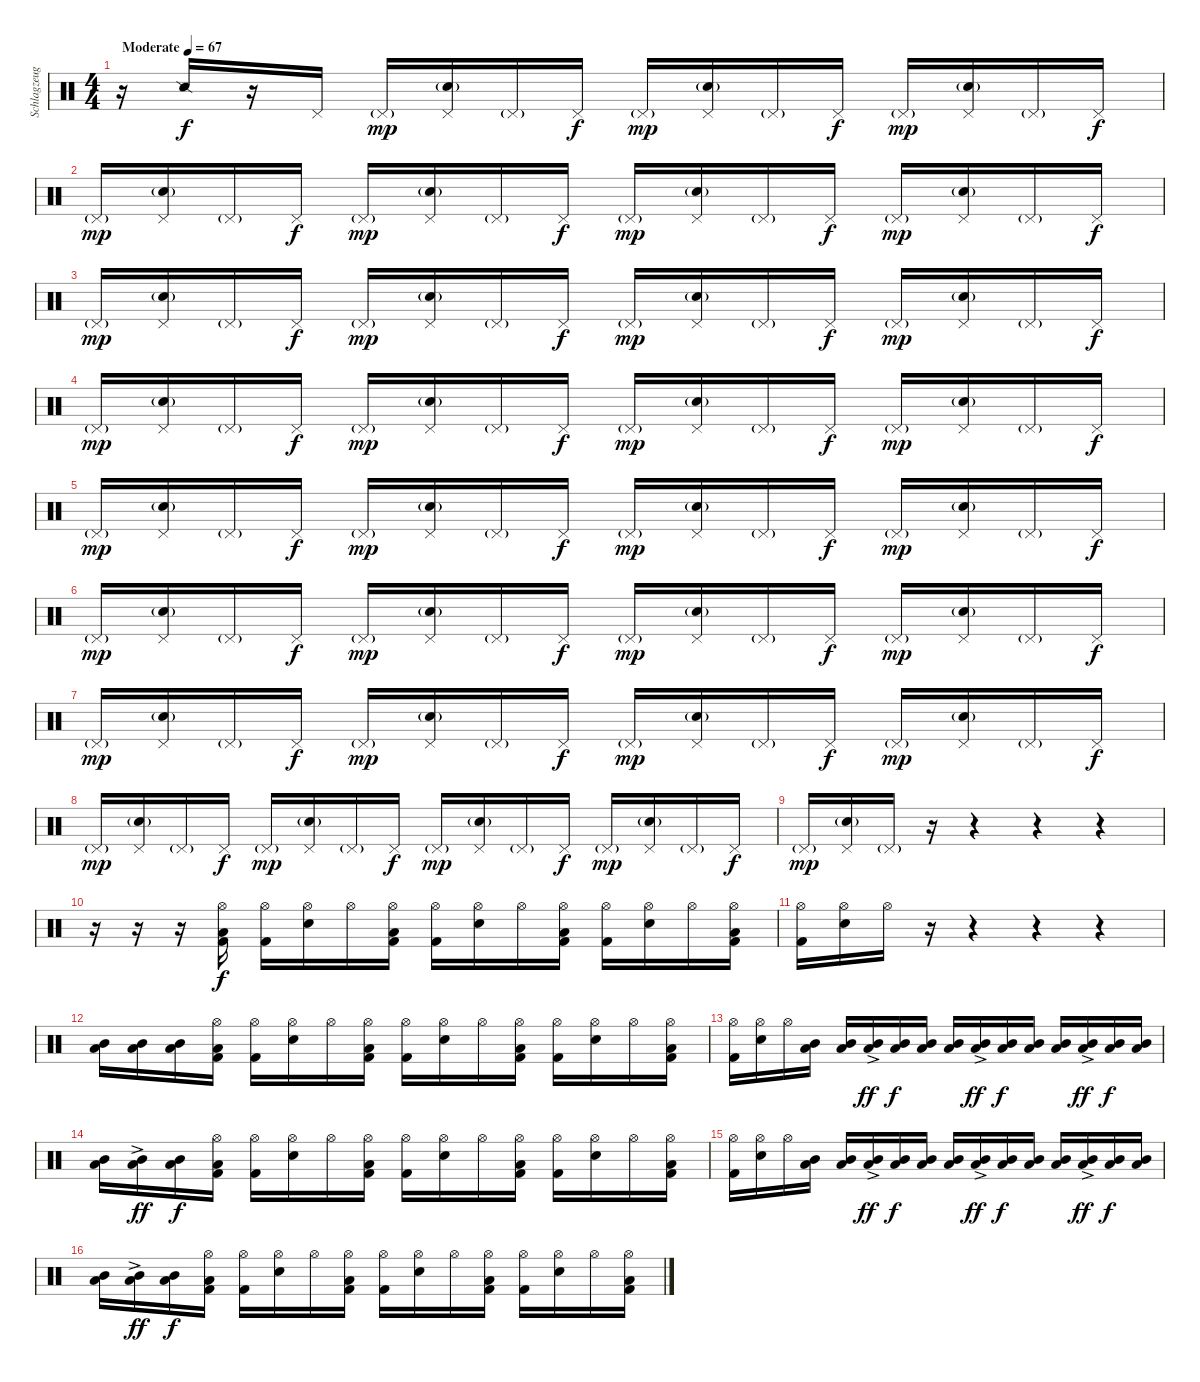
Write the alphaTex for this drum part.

\track ("Schlagzeug" "Schlagzeug") {instrument percussion}
\staff {score}
\articulation defaults
\ts (4 4)
\tempo (67 "Moderate")
\clef neutral
\ks c
r.16{dy f} "Snare (side stick) 2".16 r.16 "Pedal Hi-Hat (hit)".16 "Pedal Hi-Hat (hit)"{g}.16{dy mp} ("Pedal Hi-Hat (hit)" "Snare (hit) 2"{g}).16 "Pedal Hi-Hat (hit)"{g}.16 "Pedal Hi-Hat (hit)".16{dy f} "Pedal Hi-Hat (hit)"{g}.16{dy mp} ("Pedal Hi-Hat (hit)" "Snare (hit) 2"{g}).16 "Pedal Hi-Hat (hit)"{g}.16 "Pedal Hi-Hat (hit)".16{dy f} "Pedal Hi-Hat (hit)"{g}.16{dy mp} ("Pedal Hi-Hat (hit)" "Snare (hit) 2"{g}).16 "Pedal Hi-Hat (hit)"{g}.16 "Pedal Hi-Hat (hit)".16{dy f} |
"Pedal Hi-Hat (hit)"{g}.16{dy mp} ("Pedal Hi-Hat (hit)" "Snare (hit) 2"{g}).16 "Pedal Hi-Hat (hit)"{g}.16 "Pedal Hi-Hat (hit)".16{dy f} "Pedal Hi-Hat (hit)"{g}.16{dy mp} ("Pedal Hi-Hat (hit)" "Snare (hit) 2"{g}).16 "Pedal Hi-Hat (hit)"{g}.16 "Pedal Hi-Hat (hit)".16{dy f} "Pedal Hi-Hat (hit)"{g}.16{dy mp} ("Pedal Hi-Hat (hit)" "Snare (hit) 2"{g}).16 "Pedal Hi-Hat (hit)"{g}.16 "Pedal Hi-Hat (hit)".16{dy f} "Pedal Hi-Hat (hit)"{g}.16{dy mp} ("Pedal Hi-Hat (hit)" "Snare (hit) 2"{g}).16 "Pedal Hi-Hat (hit)"{g}.16 "Pedal Hi-Hat (hit)".16{dy f} |
"Pedal Hi-Hat (hit)"{g}.16{dy mp} ("Pedal Hi-Hat (hit)" "Snare (hit) 2"{g}).16 "Pedal Hi-Hat (hit)"{g}.16 "Pedal Hi-Hat (hit)".16{dy f} "Pedal Hi-Hat (hit)"{g}.16{dy mp} ("Pedal Hi-Hat (hit)" "Snare (hit) 2"{g}).16 "Pedal Hi-Hat (hit)"{g}.16 "Pedal Hi-Hat (hit)".16{dy f} "Pedal Hi-Hat (hit)"{g}.16{dy mp} ("Pedal Hi-Hat (hit)" "Snare (hit) 2"{g}).16 "Pedal Hi-Hat (hit)"{g}.16 "Pedal Hi-Hat (hit)".16{dy f} "Pedal Hi-Hat (hit)"{g}.16{dy mp} ("Pedal Hi-Hat (hit)" "Snare (hit) 2"{g}).16 "Pedal Hi-Hat (hit)"{g}.16 "Pedal Hi-Hat (hit)".16{dy f} |
"Pedal Hi-Hat (hit)"{g}.16{dy mp} ("Pedal Hi-Hat (hit)" "Snare (hit) 2"{g}).16 "Pedal Hi-Hat (hit)"{g}.16 "Pedal Hi-Hat (hit)".16{dy f} "Pedal Hi-Hat (hit)"{g}.16{dy mp} ("Pedal Hi-Hat (hit)" "Snare (hit) 2"{g}).16 "Pedal Hi-Hat (hit)"{g}.16 "Pedal Hi-Hat (hit)".16{dy f} "Pedal Hi-Hat (hit)"{g}.16{dy mp} ("Pedal Hi-Hat (hit)" "Snare (hit) 2"{g}).16 "Pedal Hi-Hat (hit)"{g}.16 "Pedal Hi-Hat (hit)".16{dy f} "Pedal Hi-Hat (hit)"{g}.16{dy mp} ("Pedal Hi-Hat (hit)" "Snare (hit) 2"{g}).16 "Pedal Hi-Hat (hit)"{g}.16 "Pedal Hi-Hat (hit)".16{dy f} |
"Pedal Hi-Hat (hit)"{g}.16{dy mp} ("Pedal Hi-Hat (hit)" "Snare (hit) 2"{g}).16 "Pedal Hi-Hat (hit)"{g}.16 "Pedal Hi-Hat (hit)".16{dy f} "Pedal Hi-Hat (hit)"{g}.16{dy mp} ("Pedal Hi-Hat (hit)" "Snare (hit) 2"{g}).16 "Pedal Hi-Hat (hit)"{g}.16 "Pedal Hi-Hat (hit)".16{dy f} "Pedal Hi-Hat (hit)"{g}.16{dy mp} ("Pedal Hi-Hat (hit)" "Snare (hit) 2"{g}).16 "Pedal Hi-Hat (hit)"{g}.16 "Pedal Hi-Hat (hit)".16{dy f} "Pedal Hi-Hat (hit)"{g}.16{dy mp} ("Pedal Hi-Hat (hit)" "Snare (hit) 2"{g}).16 "Pedal Hi-Hat (hit)"{g}.16 "Pedal Hi-Hat (hit)".16{dy f} |
"Pedal Hi-Hat (hit)"{g}.16{dy mp} ("Pedal Hi-Hat (hit)" "Snare (hit) 2"{g}).16 "Pedal Hi-Hat (hit)"{g}.16 "Pedal Hi-Hat (hit)".16{dy f} "Pedal Hi-Hat (hit)"{g}.16{dy mp} ("Pedal Hi-Hat (hit)" "Snare (hit) 2"{g}).16 "Pedal Hi-Hat (hit)"{g}.16 "Pedal Hi-Hat (hit)".16{dy f} "Pedal Hi-Hat (hit)"{g}.16{dy mp} ("Pedal Hi-Hat (hit)" "Snare (hit) 2"{g}).16 "Pedal Hi-Hat (hit)"{g}.16 "Pedal Hi-Hat (hit)".16{dy f} "Pedal Hi-Hat (hit)"{g}.16{dy mp} ("Pedal Hi-Hat (hit)" "Snare (hit) 2"{g}).16 "Pedal Hi-Hat (hit)"{g}.16 "Pedal Hi-Hat (hit)".16{dy f} |
"Pedal Hi-Hat (hit)"{g}.16{dy mp} ("Pedal Hi-Hat (hit)" "Snare (hit) 2"{g}).16 "Pedal Hi-Hat (hit)"{g}.16 "Pedal Hi-Hat (hit)".16{dy f} "Pedal Hi-Hat (hit)"{g}.16{dy mp} ("Pedal Hi-Hat (hit)" "Snare (hit) 2"{g}).16 "Pedal Hi-Hat (hit)"{g}.16 "Pedal Hi-Hat (hit)".16{dy f} "Pedal Hi-Hat (hit)"{g}.16{dy mp} ("Pedal Hi-Hat (hit)" "Snare (hit) 2"{g}).16 "Pedal Hi-Hat (hit)"{g}.16 "Pedal Hi-Hat (hit)".16{dy f} "Pedal Hi-Hat (hit)"{g}.16{dy mp} ("Pedal Hi-Hat (hit)" "Snare (hit) 2"{g}).16 "Pedal Hi-Hat (hit)"{g}.16 "Pedal Hi-Hat (hit)".16{dy f} |
"Pedal Hi-Hat (hit)"{g}.16{dy mp} ("Pedal Hi-Hat (hit)" "Snare (hit) 2"{g}).16 "Pedal Hi-Hat (hit)"{g}.16 "Pedal Hi-Hat (hit)".16{dy f} "Pedal Hi-Hat (hit)"{g}.16{dy mp} ("Pedal Hi-Hat (hit)" "Snare (hit) 2"{g}).16 "Pedal Hi-Hat (hit)"{g}.16 "Pedal Hi-Hat (hit)".16{dy f} "Pedal Hi-Hat (hit)"{g}.16{dy mp} ("Pedal Hi-Hat (hit)" "Snare (hit) 2"{g}).16 "Pedal Hi-Hat (hit)"{g}.16 "Pedal Hi-Hat (hit)".16{dy f} "Pedal Hi-Hat (hit)"{g}.16{dy mp} ("Pedal Hi-Hat (hit)" "Snare (hit) 2"{g}).16 "Pedal Hi-Hat (hit)"{g}.16 "Pedal Hi-Hat (hit)".16{dy f} |
"Pedal Hi-Hat (hit)"{g}.16{dy mp} ("Pedal Hi-Hat (hit)" "Snare (hit) 2"{g}).16 "Pedal Hi-Hat (hit)"{g}.16 r.16 r.4 r.4 r.4 |
r.16 r.16 r.16 ("Hi-Hat (open)" "Low Tom (hit)" "Kick (hit) 2").16{dy f} ("Hi-Hat (open)" "Kick (hit) 2").16 ("Hi-Hat (open)" "Snare (hit) 2").16 "Hi-Hat (open)".16 ("Hi-Hat (open)" "Low Tom (hit)" "Kick (hit) 2").16 ("Hi-Hat (open)" "Kick (hit) 2").16 ("Hi-Hat (open)" "Snare (hit) 2").16 "Hi-Hat (open)".16 ("Hi-Hat (open)" "Low Tom (hit)" "Kick (hit) 2").16 ("Hi-Hat (open)" "Kick (hit) 2").16 ("Hi-Hat (open)" "Snare (hit) 2").16 "Hi-Hat (open)".16 ("Hi-Hat (open)" "Low Tom (hit)" "Kick (hit) 2").16 |
("Hi-Hat (open)" "Kick (hit) 2").16 ("Hi-Hat (open)" "Snare (hit) 2").16 "Hi-Hat (open)".16 r.16 r.4 r.4 r.4 |
("Mid Tom (hit)" "Low Tom (hit)").16 ("Mid Tom (hit)" "Low Tom (hit)").16 ("Mid Tom (hit)" "Low Tom (hit)").16 ("Hi-Hat (open)" "Low Tom (hit)" "Kick (hit) 2").16 ("Hi-Hat (open)" "Kick (hit) 2").16 ("Hi-Hat (open)" "Snare (hit) 2").16 "Hi-Hat (open)".16 ("Hi-Hat (open)" "Low Tom (hit)" "Kick (hit) 2").16 ("Hi-Hat (open)" "Kick (hit) 2").16 ("Hi-Hat (open)" "Snare (hit) 2").16 "Hi-Hat (open)".16 ("Hi-Hat (open)" "Low Tom (hit)" "Kick (hit) 2").16 ("Hi-Hat (open)" "Kick (hit) 2").16 ("Hi-Hat (open)" "Snare (hit) 2").16 "Hi-Hat (open)".16 ("Hi-Hat (open)" "Low Tom (hit)" "Kick (hit) 2").16 |
("Hi-Hat (open)" "Kick (hit) 2").16 ("Hi-Hat (open)" "Snare (hit) 2").16 "Hi-Hat (open)".16 ("Mid Tom (hit)" "Low Tom (hit)").16 ("Mid Tom (hit)" "Low Tom (hit)").16 ("Mid Tom (hit)"{ac} "Low Tom (hit)"{ac}).16{dy ff} ("Mid Tom (hit)" "Low Tom (hit)").16{dy f} ("Mid Tom (hit)" "Low Tom (hit)").16 ("Mid Tom (hit)" "Low Tom (hit)").16 ("Mid Tom (hit)"{ac} "Low Tom (hit)"{ac}).16{dy ff} ("Mid Tom (hit)" "Low Tom (hit)").16{dy f} ("Mid Tom (hit)" "Low Tom (hit)").16 ("Mid Tom (hit)" "Low Tom (hit)").16 ("Mid Tom (hit)"{ac} "Low Tom (hit)"{ac}).16{dy ff} ("Mid Tom (hit)" "Low Tom (hit)").16{dy f} ("Mid Tom (hit)" "Low Tom (hit)").16 |
("Mid Tom (hit)" "Low Tom (hit)").16 ("Mid Tom (hit)"{ac} "Low Tom (hit)"{ac}).16{dy ff} ("Mid Tom (hit)" "Low Tom (hit)").16{dy f} ("Hi-Hat (open)" "Low Tom (hit)" "Kick (hit) 2").16 ("Hi-Hat (open)" "Kick (hit) 2").16 ("Hi-Hat (open)" "Snare (hit) 2").16 "Hi-Hat (open)".16 ("Hi-Hat (open)" "Low Tom (hit)" "Kick (hit) 2").16 ("Hi-Hat (open)" "Kick (hit) 2").16 ("Hi-Hat (open)" "Snare (hit) 2").16 "Hi-Hat (open)".16 ("Hi-Hat (open)" "Low Tom (hit)" "Kick (hit) 2").16 ("Hi-Hat (open)" "Kick (hit) 2").16 ("Hi-Hat (open)" "Snare (hit) 2").16 "Hi-Hat (open)".16 ("Hi-Hat (open)" "Low Tom (hit)" "Kick (hit) 2").16 |
("Hi-Hat (open)" "Kick (hit) 2").16 ("Hi-Hat (open)" "Snare (hit) 2").16 "Hi-Hat (open)".16 ("Mid Tom (hit)" "Low Tom (hit)").16 ("Mid Tom (hit)" "Low Tom (hit)").16 ("Mid Tom (hit)"{ac} "Low Tom (hit)"{ac}).16{dy ff} ("Mid Tom (hit)" "Low Tom (hit)").16{dy f} ("Mid Tom (hit)" "Low Tom (hit)").16 ("Mid Tom (hit)" "Low Tom (hit)").16 ("Mid Tom (hit)"{ac} "Low Tom (hit)"{ac}).16{dy ff} ("Mid Tom (hit)" "Low Tom (hit)").16{dy f} ("Mid Tom (hit)" "Low Tom (hit)").16 ("Mid Tom (hit)" "Low Tom (hit)").16 ("Mid Tom (hit)"{ac} "Low Tom (hit)"{ac}).16{dy ff} ("Mid Tom (hit)" "Low Tom (hit)").16{dy f} ("Mid Tom (hit)" "Low Tom (hit)").16 |
("Mid Tom (hit)" "Low Tom (hit)").16 ("Mid Tom (hit)"{ac} "Low Tom (hit)"{ac}).16{dy ff} ("Mid Tom (hit)" "Low Tom (hit)").16{dy f} ("Hi-Hat (open)" "Low Tom (hit)" "Kick (hit) 2").16 ("Hi-Hat (open)" "Kick (hit) 2").16 ("Hi-Hat (open)" "Snare (hit) 2").16 "Hi-Hat (open)".16 ("Hi-Hat (open)" "Low Tom (hit)" "Kick (hit) 2").16 ("Hi-Hat (open)" "Kick (hit) 2").16 ("Hi-Hat (open)" "Snare (hit) 2").16 "Hi-Hat (open)".16 ("Hi-Hat (open)" "Low Tom (hit)" "Kick (hit) 2").16 ("Hi-Hat (open)" "Kick (hit) 2").16 ("Hi-Hat (open)" "Snare (hit) 2").16 "Hi-Hat (open)".16 ("Hi-Hat (open)" "Low Tom (hit)" "Kick (hit) 2").16
